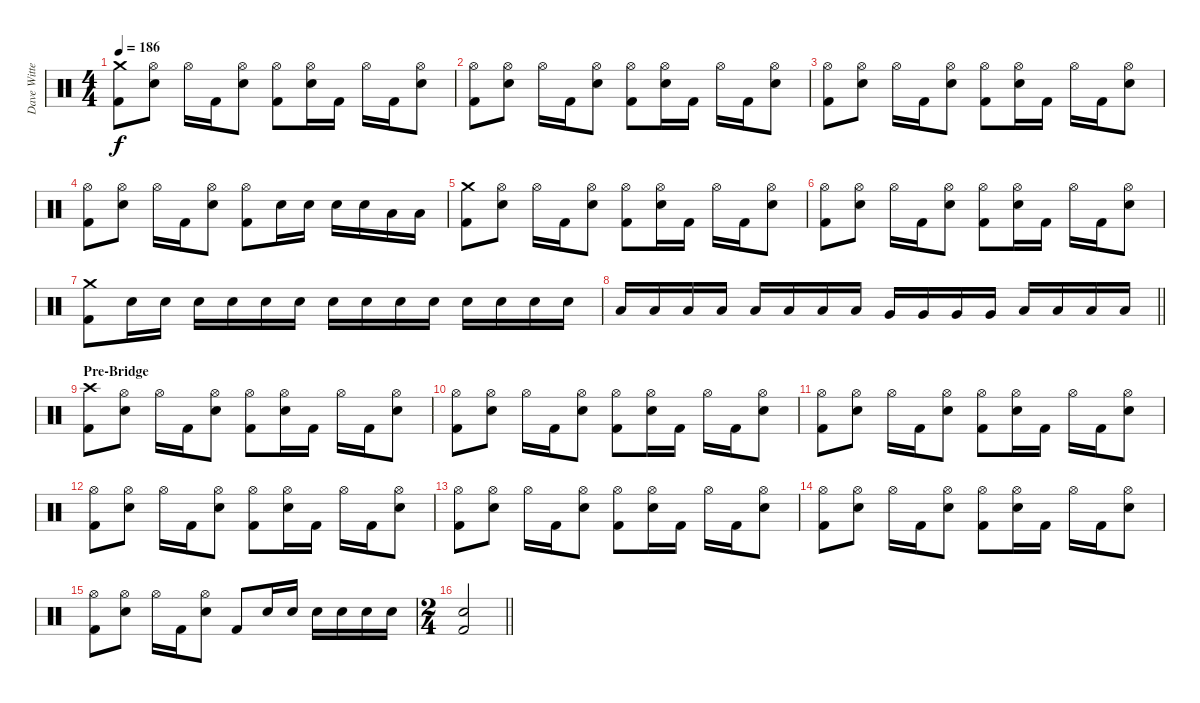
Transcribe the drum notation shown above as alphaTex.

\track ("Dave Witte" "Dave Witte") {instrument percussion}
\staff {score}
\articulation defaults
\ts (4 4)
\tempo 186
\clef neutral
\ks c
("Crash medium (hit)" "Kick (hit) 2").8{dy f} ("Hi-Hat (open)" "Electric Snare (hit)").8 "Hi-Hat (open)".16 "Kick (hit) 2".16 ("Hi-Hat (open)" "Electric Snare (hit)").8 ("Hi-Hat (open)" "Kick (hit) 2").8 ("Hi-Hat (open)" "Electric Snare (hit)").16 "Kick (hit) 2".16 "Hi-Hat (open)".16 "Kick (hit) 2".16 ("Hi-Hat (open)" "Electric Snare (hit)").8 |
("Hi-Hat (open)" "Kick (hit) 2").8 ("Hi-Hat (open)" "Electric Snare (hit)").8 "Hi-Hat (open)".16 "Kick (hit) 2".16 ("Hi-Hat (open)" "Electric Snare (hit)").8 ("Hi-Hat (open)" "Kick (hit) 2").8 ("Hi-Hat (open)" "Electric Snare (hit)").16 "Kick (hit) 2".16 "Hi-Hat (open)".16 "Kick (hit) 2".16 ("Hi-Hat (open)" "Electric Snare (hit)").8 |
("Hi-Hat (open)" "Kick (hit) 2").8 ("Hi-Hat (open)" "Electric Snare (hit)").8 "Hi-Hat (open)".16 "Kick (hit) 2".16 ("Hi-Hat (open)" "Electric Snare (hit)").8 ("Hi-Hat (open)" "Kick (hit) 2").8 ("Hi-Hat (open)" "Electric Snare (hit)").16 "Kick (hit) 2".16 "Hi-Hat (open)".16 "Kick (hit) 2".16 ("Hi-Hat (open)" "Electric Snare (hit)").8 |
("Hi-Hat (open)" "Kick (hit) 2").8 ("Hi-Hat (open)" "Electric Snare (hit)").8 "Hi-Hat (open)".16 "Kick (hit) 2".16 ("Hi-Hat (open)" "Electric Snare (hit)").8 ("Hi-Hat (open)" "Kick (hit) 2").8 "Electric Snare (hit)".16 "Electric Snare (hit)".16 "Electric Snare (hit)".16 "Electric Snare (hit)".16 "Low Tom (hit)".16 "Low Tom (hit)".16 |
("Crash medium (hit)" "Kick (hit) 2").8 ("Hi-Hat (open)" "Electric Snare (hit)").8 "Hi-Hat (open)".16 "Kick (hit) 2".16 ("Hi-Hat (open)" "Electric Snare (hit)").8 ("Hi-Hat (open)" "Kick (hit) 2").8 ("Hi-Hat (open)" "Electric Snare (hit)").16 "Kick (hit) 2".16 "Hi-Hat (open)".16 "Kick (hit) 2".16 ("Hi-Hat (open)" "Electric Snare (hit)").8 |
("Hi-Hat (open)" "Kick (hit) 2").8 ("Hi-Hat (open)" "Electric Snare (hit)").8 "Hi-Hat (open)".16 "Kick (hit) 2".16 ("Hi-Hat (open)" "Electric Snare (hit)").8 ("Hi-Hat (open)" "Kick (hit) 2").8 ("Hi-Hat (open)" "Electric Snare (hit)").16 "Kick (hit) 2".16 "Hi-Hat (open)".16 "Kick (hit) 2".16 ("Hi-Hat (open)" "Electric Snare (hit)").8 |
("Crash medium (hit)" "Kick (hit) 2").8 "Electric Snare (hit)".16 "Electric Snare (hit)".16 "Electric Snare (hit)".16 "Electric Snare (hit)".16 "Electric Snare (hit)".16 "Electric Snare (hit)".16 "Electric Snare (hit)".16 "Electric Snare (hit)".16 "Electric Snare (hit)".16 "Electric Snare (hit)".16 "Electric Snare (hit)".16 "Electric Snare (hit)".16 "Electric Snare (hit)".16 "Electric Snare (hit)".16 |
\barLineRight lightlight "Low Tom (hit)".16 "Low Tom (hit)".16 "Low Tom (hit)".16 "Low Tom (hit)".16 "Low Tom (hit)".16 "Low Tom (hit)".16 "Low Tom (hit)".16 "Low Tom (hit)".16 "Very Low Tom (hit)".16 "Very Low Tom (hit)".16 "Very Low Tom (hit)".16 "Very Low Tom (hit)".16 "Low Floor Tom (hit)".16 "Low Floor Tom (hit)".16 "Low Floor Tom (hit)".16 "Low Floor Tom (hit)".16
|
\section ("" "Pre-Bridge")
("Crash high (hit)" "Kick (hit) 2").8 ("Hi-Hat (open)" "Electric Snare (hit)").8 "Hi-Hat (open)".16 "Kick (hit) 2".16 ("Hi-Hat (open)" "Electric Snare (hit)").8 ("Hi-Hat (open)" "Kick (hit) 2").8 ("Hi-Hat (open)" "Electric Snare (hit)").16 "Kick (hit) 2".16 "Hi-Hat (open)".16 "Kick (hit) 2".16 ("Hi-Hat (open)" "Electric Snare (hit)").8 |
("Hi-Hat (open)" "Kick (hit) 2").8 ("Hi-Hat (open)" "Electric Snare (hit)").8 "Hi-Hat (open)".16 "Kick (hit) 2".16 ("Hi-Hat (open)" "Electric Snare (hit)").8 ("Hi-Hat (open)" "Kick (hit) 2").8 ("Hi-Hat (open)" "Electric Snare (hit)").16 "Kick (hit) 2".16 "Hi-Hat (open)".16 "Kick (hit) 2".16 ("Hi-Hat (open)" "Electric Snare (hit)").8 |
("Hi-Hat (open)" "Kick (hit) 2").8 ("Hi-Hat (open)" "Electric Snare (hit)").8 "Hi-Hat (open)".16 "Kick (hit) 2".16 ("Hi-Hat (open)" "Electric Snare (hit)").8 ("Hi-Hat (open)" "Kick (hit) 2").8 ("Hi-Hat (open)" "Electric Snare (hit)").16 "Kick (hit) 2".16 "Hi-Hat (open)".16 "Kick (hit) 2".16 ("Hi-Hat (open)" "Electric Snare (hit)").8 |
("Hi-Hat (open)" "Kick (hit) 2").8 ("Hi-Hat (open)" "Electric Snare (hit)").8 "Hi-Hat (open)".16 "Kick (hit) 2".16 ("Hi-Hat (open)" "Electric Snare (hit)").8 ("Hi-Hat (open)" "Kick (hit) 2").8 ("Hi-Hat (open)" "Electric Snare (hit)").16 "Kick (hit) 2".16 "Hi-Hat (open)".16 "Kick (hit) 2".16 ("Hi-Hat (open)" "Electric Snare (hit)").8 |
("Hi-Hat (open)" "Kick (hit) 2").8 ("Hi-Hat (open)" "Electric Snare (hit)").8 "Hi-Hat (open)".16 "Kick (hit) 2".16 ("Hi-Hat (open)" "Electric Snare (hit)").8 ("Hi-Hat (open)" "Kick (hit) 2").8 ("Hi-Hat (open)" "Electric Snare (hit)").16 "Kick (hit) 2".16 "Hi-Hat (open)".16 "Kick (hit) 2".16 ("Hi-Hat (open)" "Electric Snare (hit)").8 |
("Hi-Hat (open)" "Kick (hit) 2").8 ("Hi-Hat (open)" "Electric Snare (hit)").8 "Hi-Hat (open)".16 "Kick (hit) 2".16 ("Hi-Hat (open)" "Electric Snare (hit)").8 ("Hi-Hat (open)" "Kick (hit) 2").8 ("Hi-Hat (open)" "Electric Snare (hit)").16 "Kick (hit) 2".16 "Hi-Hat (open)".16 "Kick (hit) 2".16 ("Hi-Hat (open)" "Electric Snare (hit)").8 |
("Hi-Hat (open)" "Kick (hit) 2").8 ("Hi-Hat (open)" "Electric Snare (hit)").8 "Hi-Hat (open)".16 "Kick (hit) 2".16 ("Hi-Hat (open)" "Electric Snare (hit)").8 "Kick (hit) 2".8 "Electric Snare (hit)".16 "Electric Snare (hit)".16 "Electric Snare (hit)".16 "Electric Snare (hit)".16 "Electric Snare (hit)".16 "Electric Snare (hit)".16 |
\ts (2 4)
\barLineRight lightlight
("Electric Snare (hit)" "Kick (hit) 2").2
